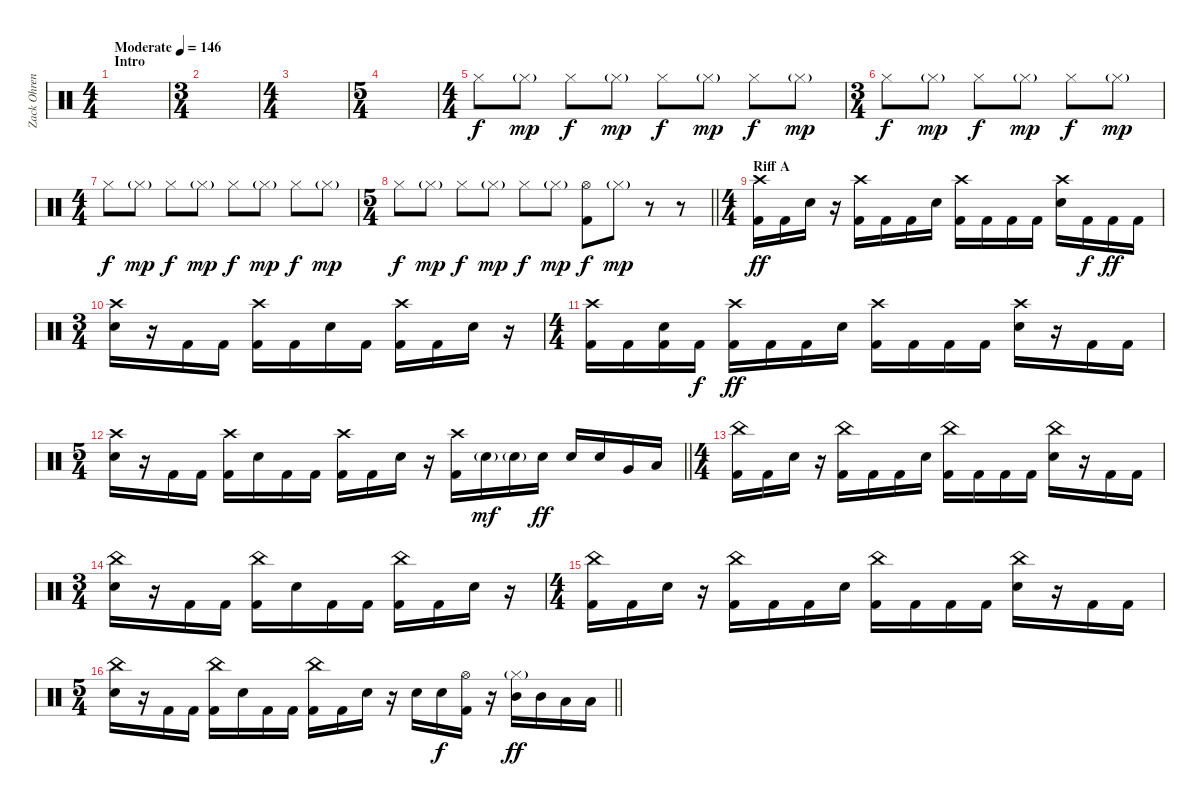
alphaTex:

\track ("Zack Ohren" "Zack Ohren") {instrument percussion}
\staff {score}
\articulation defaults
\ts (4 4)
\section ("" "Intro")
\tempo (146 "Moderate")
\clef neutral
\ks c
|
\ts (3 4)
|
\ts (4 4)
|
\ts (5 4)
|
\ts (4 4)
"Hi-Hat (closed)".8 "Hi-Hat (closed)"{g}.8{dy mp} "Hi-Hat (closed)".8{dy f} "Hi-Hat (closed)"{g}.8{dy mp} "Hi-Hat (closed)".8{dy f} "Hi-Hat (closed)"{g}.8{dy mp} "Hi-Hat (closed)".8{dy f} "Hi-Hat (closed)"{g}.8{dy mp} |
\ts (3 4)
"Hi-Hat (closed)".8{dy f} "Hi-Hat (closed)"{g}.8{dy mp} "Hi-Hat (closed)".8{dy f} "Hi-Hat (closed)"{g}.8{dy mp} "Hi-Hat (closed)".8{dy f} "Hi-Hat (closed)"{g}.8{dy mp} |
\ts (4 4)
"Hi-Hat (closed)".8{dy f} "Hi-Hat (closed)"{g}.8{dy mp} "Hi-Hat (closed)".8{dy f} "Hi-Hat (closed)"{g}.8{dy mp} "Hi-Hat (closed)".8{dy f} "Hi-Hat (closed)"{g}.8{dy mp} "Hi-Hat (closed)".8{dy f} "Hi-Hat (closed)"{g}.8{dy mp} |
\ts (5 4)
\barLineRight lightlight "Hi-Hat (closed)".8{dy f} "Hi-Hat (closed)"{g}.8{dy mp} "Hi-Hat (closed)".8{dy f} "Hi-Hat (closed)"{g}.8{dy mp} "Hi-Hat (closed)".8{dy f} "Hi-Hat (closed)"{g}.8{dy mp}
("Hi-Hat (open)" "Kick (hit) 2").8{dy f} "Hi-Hat (closed)"{g}.8{dy mp} r.8 r.8 |
\ts (4 4)
\section ("" "Riff A")
("Crash high (hit)" "Kick (hit) 2").16{dy ff} "Kick (hit) 2".16 "Electric Snare (hit)".16 r.16 ("Crash high (hit)" "Kick (hit) 2").16 "Kick (hit) 2".16 "Kick (hit) 2".16 "Electric Snare (hit)".16 ("Crash high (hit)" "Kick (hit) 2").16 "Kick (hit) 2".16 "Kick (hit) 2".16 "Kick (hit) 2".16 ("Crash high (hit)" "Electric Snare (hit)").16 "Kick (hit) 2".16{dy f} "Kick (hit) 2".16{dy ff} "Kick (hit) 2".16 |
\ts (3 4)
("Crash high (hit)" "Electric Snare (hit)").16 r.16 "Kick (hit) 2".16 "Kick (hit) 2".16 ("Crash high (hit)" "Kick (hit) 2").16 "Kick (hit) 2".16 "Electric Snare (hit)".16 "Kick (hit) 2".16 ("Crash high (hit)" "Kick (hit) 2").16 "Kick (hit) 2".16 "Electric Snare (hit)".16 r.16 |
\ts (4 4)
("Crash high (hit)" "Kick (hit) 2").16 "Kick (hit) 2".16 ("Kick (hit) 2" "Electric Snare (hit)").16 "Kick (hit) 2".16{dy f} ("Crash high (hit)" "Kick (hit) 2").16{dy ff} "Kick (hit) 2".16 "Kick (hit) 2".16 "Electric Snare (hit)".16 ("Crash high (hit)" "Kick (hit) 2").16 "Kick (hit) 2".16 "Kick (hit) 2".16 "Kick (hit) 2".16 ("Crash high (hit)" "Electric Snare (hit)").16 r.16 "Kick (hit) 2".16 "Kick (hit) 2".16 |
\ts (5 4)
\barLineRight lightlight
("Crash high (hit)" "Electric Snare (hit)").16 r.16 "Kick (hit) 2".16 "Kick (hit) 2".16 ("Crash high (hit)" "Kick (hit) 2").16 "Electric Snare (hit)".16 "Kick (hit) 2".16 "Kick (hit) 2".16 ("Crash high (hit)" "Kick (hit) 2").16 "Kick (hit) 2".16 "Electric Snare (hit)".16 r.16 ("Crash high (hit)" "Kick (hit) 2").16 "Electric Snare (hit)"{g}.16{dy mf} "Electric Snare (hit)"{g}.16 "Electric Snare (hit)".16{dy ff} "Electric Snare (hit)".16 "Electric Snare (hit)".16 "Very Low Tom (hit)".16 "Low Floor Tom (hit)".16 |
\ts (4 4)
("China (hit)" "Kick (hit) 2").16 "Kick (hit) 2".16 "Electric Snare (hit)".16 r.16 ("China (hit)" "Kick (hit) 2").16 "Kick (hit) 2".16 "Kick (hit) 2".16 "Electric Snare (hit)".16 ("China (hit)" "Kick (hit) 2").16 "Kick (hit) 2".16 "Kick (hit) 2".16 "Kick (hit) 2".16 ("China (hit)" "Electric Snare (hit)").16 r.16 "Kick (hit) 2".16 "Kick (hit) 2".16 |
\ts (3 4)
("China (hit)" "Electric Snare (hit)").16 r.16 "Kick (hit) 2".16 "Kick (hit) 2".16 ("China (hit)" "Kick (hit) 2").16 "Electric Snare (hit)".16 "Kick (hit) 2".16 "Kick (hit) 2".16 ("China (hit)" "Kick (hit) 2").16 "Kick (hit) 2".16 "Electric Snare (hit)".16 r.16 |
\ts (4 4)
("China (hit)" "Kick (hit) 2").16 "Kick (hit) 2".16 "Electric Snare (hit)".16 r.16 ("China (hit)" "Kick (hit) 2").16 "Kick (hit) 2".16 "Kick (hit) 2".16 "Electric Snare (hit)".16 ("China (hit)" "Kick (hit) 2").16 "Kick (hit) 2".16 "Kick (hit) 2".16 "Kick (hit) 2".16 ("China (hit)" "Electric Snare (hit)").16 r.16 "Kick (hit) 2".16 "Kick (hit) 2".16 |
\ts (5 4)
\barLineRight lightlight
("China (hit)" "Electric Snare (hit)").16 r.16 "Kick (hit) 2".16 "Kick (hit) 2".16 ("China (hit)" "Kick (hit) 2").16 "Electric Snare (hit)".16 "Kick (hit) 2".16 "Kick (hit) 2".16 ("China (hit)" "Kick (hit) 2").16 "Kick (hit) 2".16 "Electric Snare (hit)".16 r.16 "Electric Snare (hit)".16 "Electric Snare (hit)".16{dy f} ("Hi-Hat (open)" "Kick (hit) 2").16 r.16 ("Hi-Hat (closed)"{g} "Mid Tom (hit)").16{dy ff} "Mid Tom (hit)".16 "Low Tom (hit)".16 "Low Tom (hit)".16
